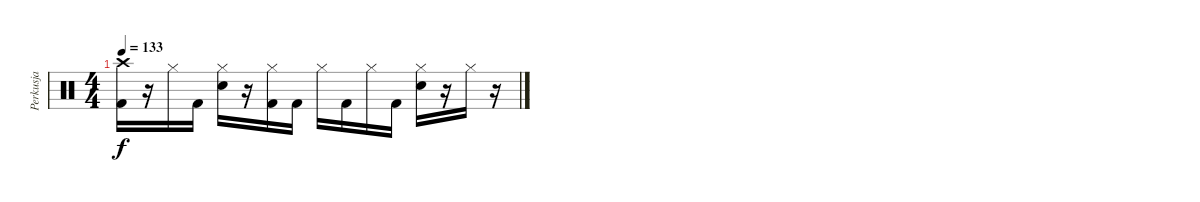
\track ("Perkusja" "Perkusja") {instrument percussion}
\staff {score}
\articulation defaults
\ts (4 4)
\tempo 133
\clef neutral
\ks c
("Crash high (hit)" "Kick (hit) 2").16{dy f} r.16 "Hi-Hat (closed)".16 "Kick (hit) 2".16 ("Hi-Hat (closed)" "Snare (hit) 2").16 r.16 ("Hi-Hat (closed)" "Kick (hit) 2").16 "Kick (hit) 2".16 "Hi-Hat (closed)".16 "Kick (hit) 2".16 "Hi-Hat (closed)".16 "Kick (hit) 2".16 ("Hi-Hat (closed)" "Snare (hit) 2").16 r.16 "Hi-Hat (closed)".16 r.16
